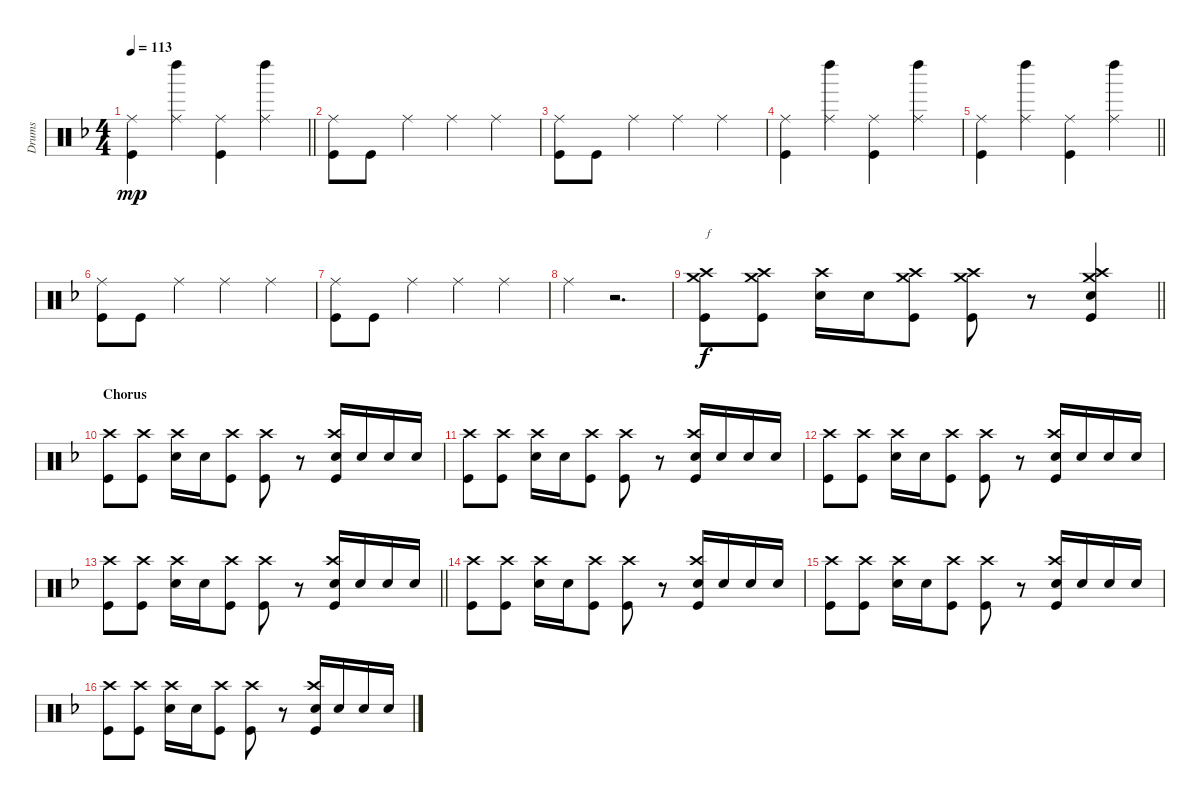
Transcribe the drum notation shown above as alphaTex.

\track ("Drums" "Drums") {instrument percussion}
\staff {score}
\articulation defaults
\ts (4 4)
\tempo 113
\clef neutral
\barLineRight lightlight
\ks dminor
("Ride (middle)" "Kick (hit)").4{dy mp} ("Ride (middle)" "Left Maraca (hit)").4 ("Ride (middle)" "Kick (hit)").4 ("Ride (middle)" "Left Maraca (hit)").4 |
\section ("" "")
("Ride (middle)" "Kick (hit)").8 "Kick (hit)".8 "Ride (middle)".4 "Ride (middle)".4 "Ride (middle)".4 |
("Ride (middle)" "Kick (hit)").8 "Kick (hit)".8 "Ride (middle)".4 "Ride (middle)".4 "Ride (middle)".4 |
("Ride (middle)" "Kick (hit)").4 ("Ride (middle)" "Left Maraca (hit)").4 ("Ride (middle)" "Kick (hit)").4 ("Ride (middle)" "Left Maraca (hit)").4 |
\barLineRight lightlight
("Ride (middle)" "Kick (hit)").4 ("Ride (middle)" "Left Maraca (hit)").4 ("Ride (middle)" "Kick (hit)").4 ("Ride (middle)" "Left Maraca (hit)").4 |
\section ("" "")
("Ride (middle)" "Kick (hit)").8 "Kick (hit)".8 "Ride (middle)".4 "Ride (middle)".4 "Ride (middle)".4 |
("Ride (middle)" "Kick (hit)").8 "Kick (hit)".8 "Ride (middle)".4 "Ride (middle)".4 "Ride (middle)".4 |
"Ride (middle)".4 r.2{d} |
\barLineRight lightlight
("Crash high (hit)" "Crash medium (hit)" "Kick (hit)").8{txt "f" dy f} ("Crash high (hit)" "Crash medium (hit)" "Kick (hit)").8 ("Crash high (hit)" "Electric Snare (hit)").16 "Electric Snare (hit)".16 ("Crash high (hit)" "Crash medium (hit)" "Kick (hit)").8 ("Crash high (hit)" "Crash medium (hit)" "Kick (hit)").8 r.8 ("Crash high (hit)" "Crash medium (hit)" "Electric Snare (hit)" "Kick (hit)").4 |
\section ("" "Chorus")
("Crash high (hit)" "Kick (hit)").8 ("Crash high (hit)" "Kick (hit)").8 ("Crash high (hit)" "Electric Snare (hit)").16 "Electric Snare (hit)".16 ("Crash high (hit)" "Kick (hit)").8 ("Crash high (hit)" "Kick (hit)").8 r.8 ("Crash high (hit)" "Electric Snare (hit)" "Kick (hit)").16 "Electric Snare (hit)".16 "Electric Snare (hit)".16 "Electric Snare (hit)".16 |
("Crash high (hit)" "Kick (hit)").8 ("Crash high (hit)" "Kick (hit)").8 ("Crash high (hit)" "Electric Snare (hit)").16 "Electric Snare (hit)".16 ("Crash high (hit)" "Kick (hit)").8 ("Crash high (hit)" "Kick (hit)").8 r.8 ("Crash high (hit)" "Electric Snare (hit)" "Kick (hit)").16 "Electric Snare (hit)".16 "Electric Snare (hit)".16 "Electric Snare (hit)".16 |
("Crash high (hit)" "Kick (hit)").8 ("Crash high (hit)" "Kick (hit)").8 ("Crash high (hit)" "Electric Snare (hit)").16 "Electric Snare (hit)".16 ("Crash high (hit)" "Kick (hit)").8 ("Crash high (hit)" "Kick (hit)").8 r.8 ("Crash high (hit)" "Electric Snare (hit)" "Kick (hit)").16 "Electric Snare (hit)".16 "Electric Snare (hit)".16 "Electric Snare (hit)".16 |
\barLineRight lightlight
("Crash high (hit)" "Kick (hit)").8 ("Crash high (hit)" "Kick (hit)").8 ("Crash high (hit)" "Electric Snare (hit)").16 "Electric Snare (hit)".16 ("Crash high (hit)" "Kick (hit)").8 ("Crash high (hit)" "Kick (hit)").8 r.8 ("Crash high (hit)" "Electric Snare (hit)" "Kick (hit)").16 "Electric Snare (hit)".16 "Electric Snare (hit)".16 "Electric Snare (hit)".16 |
\section ("" "")
("Crash high (hit)" "Kick (hit)").8 ("Crash high (hit)" "Kick (hit)").8 ("Crash high (hit)" "Electric Snare (hit)").16 "Electric Snare (hit)".16 ("Crash high (hit)" "Kick (hit)").8 ("Crash high (hit)" "Kick (hit)").8 r.8 ("Crash high (hit)" "Electric Snare (hit)" "Kick (hit)").16 "Electric Snare (hit)".16 "Electric Snare (hit)".16 "Electric Snare (hit)".16 |
("Crash high (hit)" "Kick (hit)").8 ("Crash high (hit)" "Kick (hit)").8 ("Crash high (hit)" "Electric Snare (hit)").16 "Electric Snare (hit)".16 ("Crash high (hit)" "Kick (hit)").8 ("Crash high (hit)" "Kick (hit)").8 r.8 ("Crash high (hit)" "Electric Snare (hit)" "Kick (hit)").16 "Electric Snare (hit)".16 "Electric Snare (hit)".16 "Electric Snare (hit)".16 |
("Crash high (hit)" "Kick (hit)").8 ("Crash high (hit)" "Kick (hit)").8 ("Crash high (hit)" "Electric Snare (hit)").16 "Electric Snare (hit)".16 ("Crash high (hit)" "Kick (hit)").8 ("Crash high (hit)" "Kick (hit)").8 r.8 ("Crash high (hit)" "Electric Snare (hit)" "Kick (hit)").16 "Electric Snare (hit)".16 "Electric Snare (hit)".16 "Electric Snare (hit)".16
